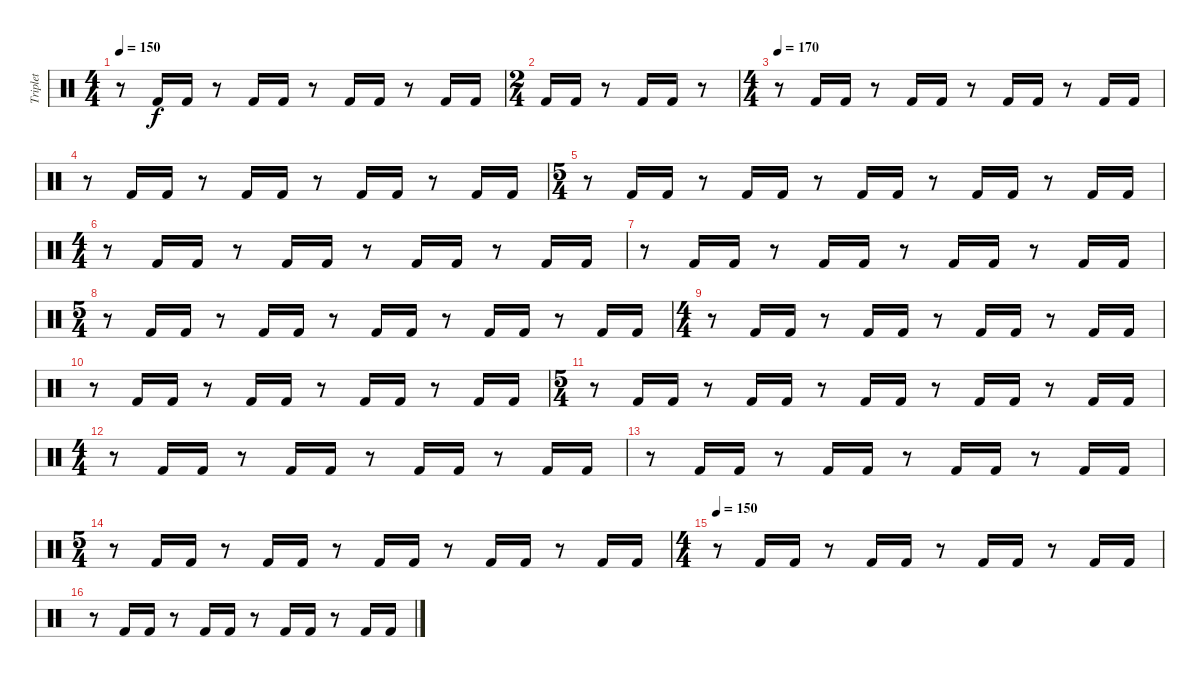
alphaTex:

\track ("Triplet" "Triplet") {instrument percussion}
\staff {score}
\articulation defaults
\ts (4 4)
\tempo 150
\clef neutral
\ks c
r.8{dy f} "Kick (hit) 2".16 "Kick (hit) 2".16 r.8 "Kick (hit) 2".16 "Kick (hit) 2".16 r.8 "Kick (hit) 2".16 "Kick (hit) 2".16 r.8 "Kick (hit) 2".16 "Kick (hit) 2".16 |
\ts (2 4)
"Kick (hit) 2".16 "Kick (hit) 2".16 r.8 "Kick (hit) 2".16 "Kick (hit) 2".16 r.8 |
\ts (4 4)
\tempo 170
r.8 "Kick (hit) 2".16 "Kick (hit) 2".16 r.8 "Kick (hit) 2".16 "Kick (hit) 2".16 r.8 "Kick (hit) 2".16 "Kick (hit) 2".16 r.8 "Kick (hit) 2".16 "Kick (hit) 2".16 |
r.8 "Kick (hit) 2".16 "Kick (hit) 2".16 r.8 "Kick (hit) 2".16 "Kick (hit) 2".16 r.8 "Kick (hit) 2".16 "Kick (hit) 2".16 r.8 "Kick (hit) 2".16 "Kick (hit) 2".16 |
\ts (5 4)
r.8 "Kick (hit) 2".16 "Kick (hit) 2".16 r.8 "Kick (hit) 2".16 "Kick (hit) 2".16 r.8 "Kick (hit) 2".16 "Kick (hit) 2".16 r.8 "Kick (hit) 2".16 "Kick (hit) 2".16 r.8 "Kick (hit) 2".16 "Kick (hit) 2".16 |
\ts (4 4)
r.8 "Kick (hit) 2".16 "Kick (hit) 2".16 r.8 "Kick (hit) 2".16 "Kick (hit) 2".16 r.8 "Kick (hit) 2".16 "Kick (hit) 2".16 r.8 "Kick (hit) 2".16 "Kick (hit) 2".16 |
r.8 "Kick (hit) 2".16 "Kick (hit) 2".16 r.8 "Kick (hit) 2".16 "Kick (hit) 2".16 r.8 "Kick (hit) 2".16 "Kick (hit) 2".16 r.8 "Kick (hit) 2".16 "Kick (hit) 2".16 |
\ts (5 4)
r.8 "Kick (hit) 2".16 "Kick (hit) 2".16 r.8 "Kick (hit) 2".16 "Kick (hit) 2".16 r.8 "Kick (hit) 2".16 "Kick (hit) 2".16 r.8 "Kick (hit) 2".16 "Kick (hit) 2".16 r.8 "Kick (hit) 2".16 "Kick (hit) 2".16 |
\ts (4 4)
r.8 "Kick (hit) 2".16 "Kick (hit) 2".16 r.8 "Kick (hit) 2".16 "Kick (hit) 2".16 r.8 "Kick (hit) 2".16 "Kick (hit) 2".16 r.8 "Kick (hit) 2".16 "Kick (hit) 2".16 |
r.8 "Kick (hit) 2".16 "Kick (hit) 2".16 r.8 "Kick (hit) 2".16 "Kick (hit) 2".16 r.8 "Kick (hit) 2".16 "Kick (hit) 2".16 r.8 "Kick (hit) 2".16 "Kick (hit) 2".16 |
\ts (5 4)
r.8 "Kick (hit) 2".16 "Kick (hit) 2".16 r.8 "Kick (hit) 2".16 "Kick (hit) 2".16 r.8 "Kick (hit) 2".16 "Kick (hit) 2".16 r.8 "Kick (hit) 2".16 "Kick (hit) 2".16 r.8 "Kick (hit) 2".16 "Kick (hit) 2".16 |
\ts (4 4)
r.8 "Kick (hit) 2".16 "Kick (hit) 2".16 r.8 "Kick (hit) 2".16 "Kick (hit) 2".16 r.8 "Kick (hit) 2".16 "Kick (hit) 2".16 r.8 "Kick (hit) 2".16 "Kick (hit) 2".16 |
r.8 "Kick (hit) 2".16 "Kick (hit) 2".16 r.8 "Kick (hit) 2".16 "Kick (hit) 2".16 r.8 "Kick (hit) 2".16 "Kick (hit) 2".16 r.8 "Kick (hit) 2".16 "Kick (hit) 2".16 |
\ts (5 4)
r.8 "Kick (hit) 2".16 "Kick (hit) 2".16 r.8 "Kick (hit) 2".16 "Kick (hit) 2".16 r.8 "Kick (hit) 2".16 "Kick (hit) 2".16 r.8 "Kick (hit) 2".16 "Kick (hit) 2".16 r.8 "Kick (hit) 2".16 "Kick (hit) 2".16 |
\ts (4 4)
\tempo 150
r.8 "Kick (hit) 2".16 "Kick (hit) 2".16 r.8 "Kick (hit) 2".16 "Kick (hit) 2".16 r.8 "Kick (hit) 2".16 "Kick (hit) 2".16 r.8 "Kick (hit) 2".16 "Kick (hit) 2".16 |
r.8 "Kick (hit) 2".16 "Kick (hit) 2".16 r.8 "Kick (hit) 2".16 "Kick (hit) 2".16 r.8 "Kick (hit) 2".16 "Kick (hit) 2".16 r.8 "Kick (hit) 2".16 "Kick (hit) 2".16
